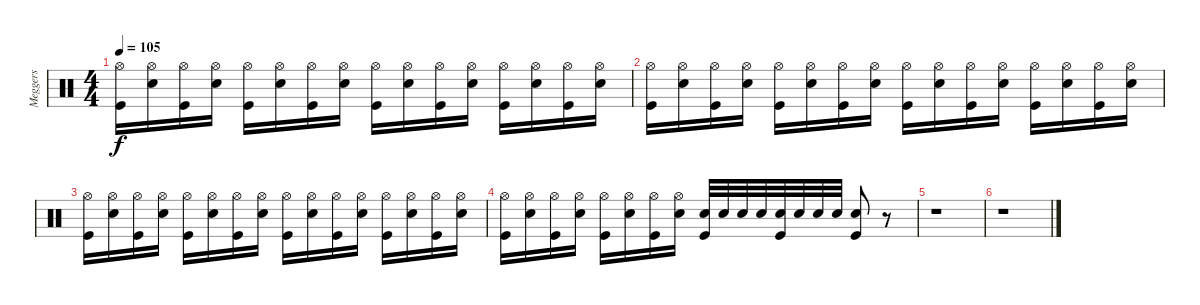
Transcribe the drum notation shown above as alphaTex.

\track ("Meggers" "Meggers") {instrument percussion}
\staff {score}
\articulation defaults
\ts (4 4)
\tempo 105
\clef neutral
\ks c
("Hi-Hat (open)" "Kick (hit)").16{dy f} ("Hi-Hat (open)" "Snare (hit) 2").16 ("Hi-Hat (open)" "Kick (hit)").16 ("Hi-Hat (open)" "Snare (hit) 2").16 ("Hi-Hat (open)" "Kick (hit)").16 ("Hi-Hat (open)" "Snare (hit) 2").16 ("Hi-Hat (open)" "Kick (hit)").16 ("Hi-Hat (open)" "Snare (hit) 2").16 ("Hi-Hat (open)" "Kick (hit)").16 ("Hi-Hat (open)" "Snare (hit) 2").16 ("Hi-Hat (open)" "Kick (hit)").16 ("Hi-Hat (open)" "Snare (hit) 2").16 ("Hi-Hat (open)" "Kick (hit)").16 ("Hi-Hat (open)" "Snare (hit) 2").16 ("Hi-Hat (open)" "Kick (hit)").16 ("Hi-Hat (open)" "Snare (hit) 2").16 |
("Hi-Hat (open)" "Kick (hit)").16 ("Hi-Hat (open)" "Snare (hit) 2").16 ("Hi-Hat (open)" "Kick (hit)").16 ("Hi-Hat (open)" "Snare (hit) 2").16 ("Hi-Hat (open)" "Kick (hit)").16 ("Hi-Hat (open)" "Snare (hit) 2").16 ("Hi-Hat (open)" "Kick (hit)").16 ("Hi-Hat (open)" "Snare (hit) 2").16 ("Hi-Hat (open)" "Kick (hit)").16 ("Hi-Hat (open)" "Snare (hit) 2").16 ("Hi-Hat (open)" "Kick (hit)").16 ("Hi-Hat (open)" "Snare (hit) 2").16 ("Hi-Hat (open)" "Kick (hit)").16 ("Hi-Hat (open)" "Snare (hit) 2").16 ("Hi-Hat (open)" "Kick (hit)").16 ("Hi-Hat (open)" "Snare (hit) 2").16 |
("Hi-Hat (open)" "Kick (hit)").16 ("Hi-Hat (open)" "Snare (hit) 2").16 ("Hi-Hat (open)" "Kick (hit)").16 ("Hi-Hat (open)" "Snare (hit) 2").16 ("Hi-Hat (open)" "Kick (hit)").16 ("Hi-Hat (open)" "Snare (hit) 2").16 ("Hi-Hat (open)" "Kick (hit)").16 ("Hi-Hat (open)" "Snare (hit) 2").16 ("Hi-Hat (open)" "Kick (hit)").16 ("Hi-Hat (open)" "Snare (hit) 2").16 ("Hi-Hat (open)" "Kick (hit)").16 ("Hi-Hat (open)" "Snare (hit) 2").16 ("Hi-Hat (open)" "Kick (hit)").16 ("Hi-Hat (open)" "Snare (hit) 2").16 ("Hi-Hat (open)" "Kick (hit)").16 ("Hi-Hat (open)" "Snare (hit) 2").16 |
("Hi-Hat (open)" "Kick (hit)").16 ("Hi-Hat (open)" "Snare (hit) 2").16 ("Hi-Hat (open)" "Kick (hit)").16 ("Hi-Hat (open)" "Snare (hit) 2").16 ("Hi-Hat (open)" "Kick (hit)").16 ("Hi-Hat (open)" "Snare (hit) 2").16 ("Hi-Hat (open)" "Kick (hit)").16 ("Hi-Hat (open)" "Snare (hit) 2").16 ("Snare (hit) 2" "Kick (hit)").32 "Snare (hit) 2".32 "Snare (hit) 2".32 "Snare (hit) 2".32 ("Snare (hit) 2" "Kick (hit)").32 "Snare (hit) 2".32 "Snare (hit) 2".32 "Snare (hit) 2".32 ("Snare (hit) 2" "Kick (hit)").8 r.8 |
r.1 |
r.1
